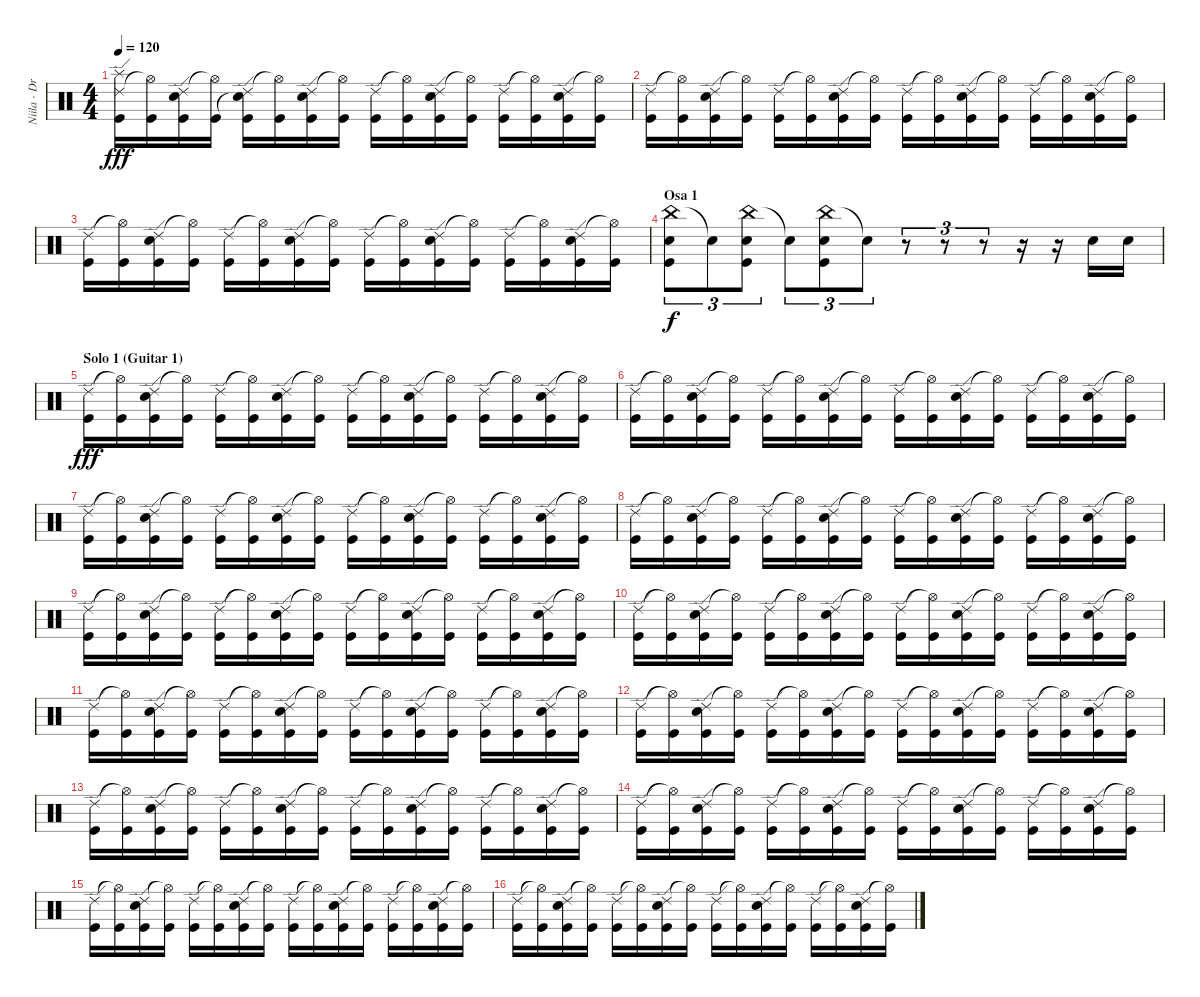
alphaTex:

\track ("Niila - Drums" "Niila - Dr") {instrument percussion}
\staff {score}
\articulation defaults
\ts (4 4)
\tempo 120
\clef neutral
\ks c
("Ride (edge) 2" "Splash (hit)" "Kick (hit)").16{dy fff} ("Hi-Hat (open)"{t} "Kick (hit)").16 ("Ride (edge) 2" "Snare (hit) 2" "Kick (hit)").16 ("Hi-Hat (open)"{t} "Kick (hit)").16 ("Ride (edge) 2" "Snare (hit)"{t} "Kick (hit)").16 ("Hi-Hat (open)"{t} "Kick (hit)").16 ("Ride (edge) 2" "Snare (hit) 2" "Kick (hit)").16 ("Hi-Hat (open)"{t} "Kick (hit)").16 ("Ride (edge) 2" "Kick (hit)").16 ("Hi-Hat (open)"{t} "Kick (hit)").16 ("Ride (edge) 2" "Snare (hit) 2" "Kick (hit)").16 ("Hi-Hat (open)"{t} "Kick (hit)").16 ("Ride (edge) 2" "Kick (hit)").16 ("Hi-Hat (open)"{t} "Kick (hit)").16 ("Ride (edge) 2" "Snare (hit) 2" "Kick (hit)").16 ("Hi-Hat (open)"{t} "Kick (hit)").16 |
("Ride (edge) 2" "Kick (hit)").16 ("Hi-Hat (open)"{t} "Kick (hit)").16 ("Ride (edge) 2" "Snare (hit) 2" "Kick (hit)").16 ("Hi-Hat (open)"{t} "Kick (hit)").16 ("Ride (edge) 2" "Kick (hit)").16 ("Hi-Hat (open)"{t} "Kick (hit)").16 ("Ride (edge) 2" "Snare (hit) 2" "Kick (hit)").16 ("Hi-Hat (open)"{t} "Kick (hit)").16 ("Ride (edge) 2" "Kick (hit)").16 ("Hi-Hat (open)"{t} "Kick (hit)").16 ("Ride (edge) 2" "Snare (hit) 2" "Kick (hit)").16 ("Hi-Hat (open)"{t} "Kick (hit)").16 ("Ride (edge) 2" "Kick (hit)").16 ("Hi-Hat (open)"{t} "Kick (hit)").16 ("Ride (edge) 2" "Snare (hit) 2" "Kick (hit)").16 ("Hi-Hat (open)"{t} "Kick (hit)").16 |
("Ride (edge) 2" "Kick (hit)").16 ("Hi-Hat (open)"{t} "Kick (hit)").16 ("Ride (edge) 2" "Snare (hit) 2" "Kick (hit)").16 ("Hi-Hat (open)"{t} "Kick (hit)").16 ("Ride (edge) 2" "Kick (hit)").16 ("Hi-Hat (open)"{t} "Kick (hit)").16 ("Ride (edge) 2" "Snare (hit) 2" "Kick (hit)").16 ("Hi-Hat (open)"{t} "Kick (hit)").16 ("Ride (edge) 2" "Kick (hit)").16 ("Hi-Hat (open)"{t} "Kick (hit)").16 ("Ride (edge) 2" "Snare (hit) 2" "Kick (hit)").16 ("Hi-Hat (open)"{t} "Kick (hit)").16 ("Ride (edge) 2" "Kick (hit)").16 ("Hi-Hat (open)"{t} "Kick (hit)").16 ("Ride (edge) 2" "Snare (hit) 2" "Kick (hit)").16 ("Hi-Hat (open)"{t} "Kick (hit)").16 |
\section ("" "Osa 1")
("China (hit)" "Snare (hit) 2" "Kick (hit)").8{tu (3 2) dy f} "Snare (hit)"{t}.8{tu (3 2)} ("China (hit)" "Snare (hit) 2" "Kick (hit)").8{tu (3 2)} "Snare (hit)"{t}.8{tu (3 2)} ("China (hit)" "Snare (hit) 2" "Kick (hit)").8{tu (3 2)} "Snare (hit)"{t}.8{tu (3 2)} r.8{tu (3 2)} r.8{tu (3 2)} r.8{tu (3 2)} r.16 r.16 "Snare (hit) 2".16 "Snare (hit) 2".16 |
\section ("" "Solo 1 (Guitar 1) ")
("Ride (edge) 2" "Kick (hit)").16{dy fff} ("Hi-Hat (open)"{t} "Kick (hit)").16 ("Ride (edge) 2" "Snare (hit) 2" "Kick (hit)").16 ("Hi-Hat (open)"{t} "Kick (hit)").16 ("Ride (edge) 2" "Kick (hit)").16 ("Hi-Hat (open)"{t} "Kick (hit)").16 ("Ride (edge) 2" "Snare (hit) 2" "Kick (hit)").16 ("Hi-Hat (open)"{t} "Kick (hit)").16 ("Ride (edge) 2" "Kick (hit)").16 ("Hi-Hat (open)"{t} "Kick (hit)").16 ("Ride (edge) 2" "Snare (hit) 2" "Kick (hit)").16 ("Hi-Hat (open)"{t} "Kick (hit)").16 ("Ride (edge) 2" "Kick (hit)").16 ("Hi-Hat (open)"{t} "Kick (hit)").16 ("Ride (edge) 2" "Snare (hit) 2" "Kick (hit)").16 ("Hi-Hat (open)"{t} "Kick (hit)").16 |
("Ride (edge) 2" "Kick (hit)").16 ("Hi-Hat (open)"{t} "Kick (hit)").16 ("Ride (edge) 2" "Snare (hit) 2" "Kick (hit)").16 ("Hi-Hat (open)"{t} "Kick (hit)").16 ("Ride (edge) 2" "Kick (hit)").16 ("Hi-Hat (open)"{t} "Kick (hit)").16 ("Ride (edge) 2" "Snare (hit) 2" "Kick (hit)").16 ("Hi-Hat (open)"{t} "Kick (hit)").16 ("Ride (edge) 2" "Kick (hit)").16 ("Hi-Hat (open)"{t} "Kick (hit)").16 ("Ride (edge) 2" "Snare (hit) 2" "Kick (hit)").16 ("Hi-Hat (open)"{t} "Kick (hit)").16 ("Ride (edge) 2" "Kick (hit)").16 ("Hi-Hat (open)"{t} "Kick (hit)").16 ("Ride (edge) 2" "Snare (hit) 2" "Kick (hit)").16 ("Hi-Hat (open)"{t} "Kick (hit)").16 |
("Ride (edge) 2" "Kick (hit)").16 ("Hi-Hat (open)"{t} "Kick (hit)").16 ("Ride (edge) 2" "Snare (hit) 2" "Kick (hit)").16 ("Hi-Hat (open)"{t} "Kick (hit)").16 ("Ride (edge) 2" "Kick (hit)").16 ("Hi-Hat (open)"{t} "Kick (hit)").16 ("Ride (edge) 2" "Snare (hit) 2" "Kick (hit)").16 ("Hi-Hat (open)"{t} "Kick (hit)").16 ("Ride (edge) 2" "Kick (hit)").16 ("Hi-Hat (open)"{t} "Kick (hit)").16 ("Ride (edge) 2" "Snare (hit) 2" "Kick (hit)").16 ("Hi-Hat (open)"{t} "Kick (hit)").16 ("Ride (edge) 2" "Kick (hit)").16 ("Hi-Hat (open)"{t} "Kick (hit)").16 ("Ride (edge) 2" "Snare (hit) 2" "Kick (hit)").16 ("Hi-Hat (open)"{t} "Kick (hit)").16 |
("Ride (edge) 2" "Kick (hit)").16 ("Hi-Hat (open)"{t} "Kick (hit)").16 ("Ride (edge) 2" "Snare (hit) 2" "Kick (hit)").16 ("Hi-Hat (open)"{t} "Kick (hit)").16 ("Ride (edge) 2" "Kick (hit)").16 ("Hi-Hat (open)"{t} "Kick (hit)").16 ("Ride (edge) 2" "Snare (hit) 2" "Kick (hit)").16 ("Hi-Hat (open)"{t} "Kick (hit)").16 ("Ride (edge) 2" "Kick (hit)").16 ("Hi-Hat (open)"{t} "Kick (hit)").16 ("Ride (edge) 2" "Snare (hit) 2" "Kick (hit)").16 ("Hi-Hat (open)"{t} "Kick (hit)").16 ("Ride (edge) 2" "Kick (hit)").16 ("Hi-Hat (open)"{t} "Kick (hit)").16 ("Ride (edge) 2" "Snare (hit) 2" "Kick (hit)").16 ("Hi-Hat (open)"{t} "Kick (hit)").16 |
("Ride (edge) 2" "Kick (hit)").16 ("Hi-Hat (open)"{t} "Kick (hit)").16 ("Ride (edge) 2" "Snare (hit) 2" "Kick (hit)").16 ("Hi-Hat (open)"{t} "Kick (hit)").16 ("Ride (edge) 2" "Kick (hit)").16 ("Hi-Hat (open)"{t} "Kick (hit)").16 ("Ride (edge) 2" "Snare (hit) 2" "Kick (hit)").16 ("Hi-Hat (open)"{t} "Kick (hit)").16 ("Ride (edge) 2" "Kick (hit)").16 ("Hi-Hat (open)"{t} "Kick (hit)").16 ("Ride (edge) 2" "Snare (hit) 2" "Kick (hit)").16 ("Hi-Hat (open)"{t} "Kick (hit)").16 ("Ride (edge) 2" "Kick (hit)").16 ("Hi-Hat (open)"{t} "Kick (hit)").16 ("Ride (edge) 2" "Snare (hit) 2" "Kick (hit)").16 ("Hi-Hat (open)"{t} "Kick (hit)").16 |
("Ride (edge) 2" "Kick (hit)").16 ("Hi-Hat (open)"{t} "Kick (hit)").16 ("Ride (edge) 2" "Snare (hit) 2" "Kick (hit)").16 ("Hi-Hat (open)"{t} "Kick (hit)").16 ("Ride (edge) 2" "Kick (hit)").16 ("Hi-Hat (open)"{t} "Kick (hit)").16 ("Ride (edge) 2" "Snare (hit) 2" "Kick (hit)").16 ("Hi-Hat (open)"{t} "Kick (hit)").16 ("Ride (edge) 2" "Kick (hit)").16 ("Hi-Hat (open)"{t} "Kick (hit)").16 ("Ride (edge) 2" "Snare (hit) 2" "Kick (hit)").16 ("Hi-Hat (open)"{t} "Kick (hit)").16 ("Ride (edge) 2" "Kick (hit)").16 ("Hi-Hat (open)"{t} "Kick (hit)").16 ("Ride (edge) 2" "Snare (hit) 2" "Kick (hit)").16 ("Hi-Hat (open)"{t} "Kick (hit)").16 |
("Ride (edge) 2" "Kick (hit)").16 ("Hi-Hat (open)"{t} "Kick (hit)").16 ("Ride (edge) 2" "Snare (hit) 2" "Kick (hit)").16 ("Hi-Hat (open)"{t} "Kick (hit)").16 ("Ride (edge) 2" "Kick (hit)").16 ("Hi-Hat (open)"{t} "Kick (hit)").16 ("Ride (edge) 2" "Snare (hit) 2" "Kick (hit)").16 ("Hi-Hat (open)"{t} "Kick (hit)").16 ("Ride (edge) 2" "Kick (hit)").16 ("Hi-Hat (open)"{t} "Kick (hit)").16 ("Ride (edge) 2" "Snare (hit) 2" "Kick (hit)").16 ("Hi-Hat (open)"{t} "Kick (hit)").16 ("Ride (edge) 2" "Kick (hit)").16 ("Hi-Hat (open)"{t} "Kick (hit)").16 ("Ride (edge) 2" "Snare (hit) 2" "Kick (hit)").16 ("Hi-Hat (open)"{t} "Kick (hit)").16 |
("Ride (edge) 2" "Kick (hit)").16 ("Hi-Hat (open)"{t} "Kick (hit)").16 ("Ride (edge) 2" "Snare (hit) 2" "Kick (hit)").16 ("Hi-Hat (open)"{t} "Kick (hit)").16 ("Ride (edge) 2" "Kick (hit)").16 ("Hi-Hat (open)"{t} "Kick (hit)").16 ("Ride (edge) 2" "Snare (hit) 2" "Kick (hit)").16 ("Hi-Hat (open)"{t} "Kick (hit)").16 ("Ride (edge) 2" "Kick (hit)").16 ("Hi-Hat (open)"{t} "Kick (hit)").16 ("Ride (edge) 2" "Snare (hit) 2" "Kick (hit)").16 ("Hi-Hat (open)"{t} "Kick (hit)").16 ("Ride (edge) 2" "Kick (hit)").16 ("Hi-Hat (open)"{t} "Kick (hit)").16 ("Ride (edge) 2" "Snare (hit) 2" "Kick (hit)").16 ("Hi-Hat (open)"{t} "Kick (hit)").16 |
("Ride (edge) 2" "Kick (hit)").16 ("Hi-Hat (open)"{t} "Kick (hit)").16 ("Ride (edge) 2" "Snare (hit) 2" "Kick (hit)").16 ("Hi-Hat (open)"{t} "Kick (hit)").16 ("Ride (edge) 2" "Kick (hit)").16 ("Hi-Hat (open)"{t} "Kick (hit)").16 ("Ride (edge) 2" "Snare (hit) 2" "Kick (hit)").16 ("Hi-Hat (open)"{t} "Kick (hit)").16 ("Ride (edge) 2" "Kick (hit)").16 ("Hi-Hat (open)"{t} "Kick (hit)").16 ("Ride (edge) 2" "Snare (hit) 2" "Kick (hit)").16 ("Hi-Hat (open)"{t} "Kick (hit)").16 ("Ride (edge) 2" "Kick (hit)").16 ("Hi-Hat (open)"{t} "Kick (hit)").16 ("Ride (edge) 2" "Snare (hit) 2" "Kick (hit)").16 ("Hi-Hat (open)"{t} "Kick (hit)").16 |
("Ride (edge) 2" "Kick (hit)").16 ("Hi-Hat (open)"{t} "Kick (hit)").16 ("Ride (edge) 2" "Snare (hit) 2" "Kick (hit)").16 ("Hi-Hat (open)"{t} "Kick (hit)").16 ("Ride (edge) 2" "Kick (hit)").16 ("Hi-Hat (open)"{t} "Kick (hit)").16 ("Ride (edge) 2" "Snare (hit) 2" "Kick (hit)").16 ("Hi-Hat (open)"{t} "Kick (hit)").16 ("Ride (edge) 2" "Kick (hit)").16 ("Hi-Hat (open)"{t} "Kick (hit)").16 ("Ride (edge) 2" "Snare (hit) 2" "Kick (hit)").16 ("Hi-Hat (open)"{t} "Kick (hit)").16 ("Ride (edge) 2" "Kick (hit)").16 ("Hi-Hat (open)"{t} "Kick (hit)").16 ("Ride (edge) 2" "Snare (hit) 2" "Kick (hit)").16 ("Hi-Hat (open)"{t} "Kick (hit)").16 |
("Ride (edge) 2" "Kick (hit)").16 ("Hi-Hat (open)"{t} "Kick (hit)").16 ("Ride (edge) 2" "Snare (hit) 2" "Kick (hit)").16 ("Hi-Hat (open)"{t} "Kick (hit)").16 ("Ride (edge) 2" "Kick (hit)").16 ("Hi-Hat (open)"{t} "Kick (hit)").16 ("Ride (edge) 2" "Snare (hit) 2" "Kick (hit)").16 ("Hi-Hat (open)"{t} "Kick (hit)").16 ("Ride (edge) 2" "Kick (hit)").16 ("Hi-Hat (open)"{t} "Kick (hit)").16 ("Ride (edge) 2" "Snare (hit) 2" "Kick (hit)").16 ("Hi-Hat (open)"{t} "Kick (hit)").16 ("Ride (edge) 2" "Kick (hit)").16 ("Hi-Hat (open)"{t} "Kick (hit)").16 ("Ride (edge) 2" "Snare (hit) 2" "Kick (hit)").16 ("Hi-Hat (open)"{t} "Kick (hit)").16 |
("Ride (edge) 2" "Kick (hit)").16 ("Hi-Hat (open)"{t} "Kick (hit)").16 ("Ride (edge) 2" "Snare (hit) 2" "Kick (hit)").16 ("Hi-Hat (open)"{t} "Kick (hit)").16 ("Ride (edge) 2" "Kick (hit)").16 ("Hi-Hat (open)"{t} "Kick (hit)").16 ("Ride (edge) 2" "Snare (hit) 2" "Kick (hit)").16 ("Hi-Hat (open)"{t} "Kick (hit)").16 ("Ride (edge) 2" "Kick (hit)").16 ("Hi-Hat (open)"{t} "Kick (hit)").16 ("Ride (edge) 2" "Snare (hit) 2" "Kick (hit)").16 ("Hi-Hat (open)"{t} "Kick (hit)").16 ("Ride (edge) 2" "Kick (hit)").16 ("Hi-Hat (open)"{t} "Kick (hit)").16 ("Ride (edge) 2" "Snare (hit) 2" "Kick (hit)").16 ("Hi-Hat (open)"{t} "Kick (hit)").16
